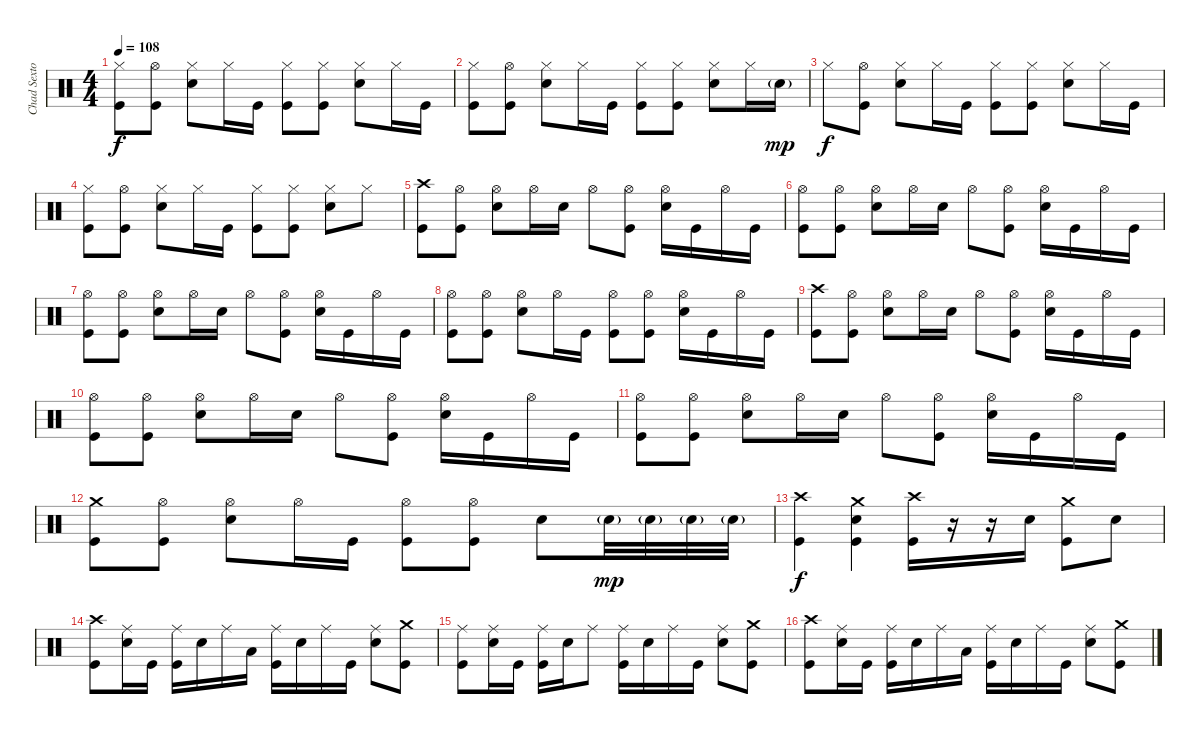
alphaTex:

\track ("Chad Sexton Drums" "Chad Sexto") {instrument percussion}
\staff {score}
\articulation defaults
\ts (4 4)
\tempo 108
\clef neutral
\ks c
("Hi-Hat (closed)" "Kick (hit)").8{dy f} ("Hi-Hat (open)" "Kick (hit)").8 ("Hi-Hat (closed)" "Electric Snare (hit)").8 "Hi-Hat (closed)".16 "Kick (hit)".16 ("Hi-Hat (closed)" "Kick (hit)").8 ("Hi-Hat (closed)" "Kick (hit)").8 ("Hi-Hat (closed)" "Electric Snare (hit)").8 "Hi-Hat (closed)".16 "Kick (hit)".16 |
("Hi-Hat (closed)" "Kick (hit)").8 ("Hi-Hat (open)" "Kick (hit)").8 ("Hi-Hat (closed)" "Electric Snare (hit)").8 "Hi-Hat (closed)".16 "Kick (hit)".16 ("Hi-Hat (closed)" "Kick (hit)").8 ("Hi-Hat (closed)" "Kick (hit)").8 ("Hi-Hat (closed)" "Electric Snare (hit)").8 "Hi-Hat (closed)".16 "Electric Snare (hit)"{g}.16{dy mp} |
"Hi-Hat (closed)".8{dy f} ("Hi-Hat (open)" "Kick (hit)").8 ("Hi-Hat (closed)" "Electric Snare (hit)").8 "Hi-Hat (closed)".16 "Kick (hit)".16 ("Hi-Hat (closed)" "Kick (hit)").8 ("Hi-Hat (closed)" "Kick (hit)").8 ("Hi-Hat (closed)" "Electric Snare (hit)").8 "Hi-Hat (closed)".16 "Kick (hit)".16 |
("Hi-Hat (closed)" "Kick (hit)").8 ("Hi-Hat (open)" "Kick (hit)").8 ("Hi-Hat (closed)" "Electric Snare (hit)").8 "Hi-Hat (closed)".16 "Kick (hit)".16 ("Hi-Hat (closed)" "Kick (hit)").8 ("Hi-Hat (closed)" "Kick (hit)").8 ("Hi-Hat (closed)" "Electric Snare (hit)").8 "Hi-Hat (closed)".8 |
("Crash high (hit)" "Kick (hit)").8 ("Hi-Hat (open)" "Kick (hit)").8 ("Hi-Hat (open)" "Electric Snare (hit)").8 "Hi-Hat (open)".16 "Electric Snare (hit)".16 "Hi-Hat (open)".8 ("Hi-Hat (open)" "Kick (hit)").8 ("Hi-Hat (open)" "Electric Snare (hit)").16 "Kick (hit)".16 "Hi-Hat (open)".16 "Kick (hit)".16 |
("Hi-Hat (open)" "Kick (hit)").8 ("Hi-Hat (open)" "Kick (hit)").8 ("Hi-Hat (open)" "Electric Snare (hit)").8 "Hi-Hat (open)".16 "Electric Snare (hit)".16 "Hi-Hat (open)".8 ("Hi-Hat (open)" "Kick (hit)").8 ("Hi-Hat (open)" "Electric Snare (hit)").16 "Kick (hit)".16 "Hi-Hat (open)".16 "Kick (hit)".16 |
("Hi-Hat (open)" "Kick (hit)").8 ("Hi-Hat (open)" "Kick (hit)").8 ("Hi-Hat (open)" "Electric Snare (hit)").8 "Hi-Hat (open)".16 "Electric Snare (hit)".16 "Hi-Hat (open)".8 ("Hi-Hat (open)" "Kick (hit)").8 ("Hi-Hat (open)" "Electric Snare (hit)").16 "Kick (hit)".16 "Hi-Hat (open)".16 "Kick (hit)".16 |
("Hi-Hat (open)" "Kick (hit)").8 ("Hi-Hat (open)" "Kick (hit)").8 ("Hi-Hat (open)" "Electric Snare (hit)").8 "Hi-Hat (open)".16 "Kick (hit)".16 ("Hi-Hat (open)" "Kick (hit)").8 ("Hi-Hat (open)" "Kick (hit)").8 ("Hi-Hat (open)" "Electric Snare (hit)").16 "Kick (hit)".16 "Hi-Hat (open)".16 "Kick (hit)".16 |
("Crash high (hit)" "Kick (hit)").8 ("Hi-Hat (open)" "Kick (hit)").8 ("Hi-Hat (open)" "Electric Snare (hit)").8 "Hi-Hat (open)".16 "Electric Snare (hit)".16 "Hi-Hat (open)".8 ("Hi-Hat (open)" "Kick (hit)").8 ("Hi-Hat (open)" "Electric Snare (hit)").16 "Kick (hit)".16 "Hi-Hat (open)".16 "Kick (hit)".16 |
("Hi-Hat (open)" "Kick (hit)").8 ("Hi-Hat (open)" "Kick (hit)").8 ("Hi-Hat (open)" "Electric Snare (hit)").8 "Hi-Hat (open)".16 "Electric Snare (hit)".16 "Hi-Hat (open)".8 ("Hi-Hat (open)" "Kick (hit)").8 ("Hi-Hat (open)" "Electric Snare (hit)").16 "Kick (hit)".16 "Hi-Hat (open)".16 "Kick (hit)".16 |
("Hi-Hat (open)" "Kick (hit)").8 ("Hi-Hat (open)" "Kick (hit)").8 ("Hi-Hat (open)" "Electric Snare (hit)").8 "Hi-Hat (open)".16 "Electric Snare (hit)".16 "Hi-Hat (open)".8 ("Hi-Hat (open)" "Kick (hit)").8 ("Hi-Hat (open)" "Electric Snare (hit)").16 "Kick (hit)".16 "Hi-Hat (open)".16 "Kick (hit)".16 |
("Crash medium (hit)" "Kick (hit)").8 ("Hi-Hat (open)" "Kick (hit)").8 ("Hi-Hat (open)" "Electric Snare (hit)").8 "Hi-Hat (open)".16 "Kick (hit)".16 ("Hi-Hat (open)" "Kick (hit)").8 ("Hi-Hat (open)" "Kick (hit)").8 "Electric Snare (hit)".8 "Electric Snare (hit)"{g}.32{dy mp} "Electric Snare (hit)"{g}.32 "Electric Snare (hit)"{g}.32 "Electric Snare (hit)"{g}.32 |
("Crash high (hit)" "Kick (hit)").4{dy f} ("Crash medium (hit)" "Electric Snare (hit)" "Kick (hit)").4 ("Crash high (hit)" "Kick (hit)").16 r.16 r.16 "Electric Snare (hit)".16 ("Crash medium (hit)" "Kick (hit)").8 "Electric Snare (hit)".8 |
("Crash high (hit)" "Kick (hit)").8 ("Ride (middle)" "Electric Snare (hit)").16 "Kick (hit)".16 ("Ride (middle)" "Kick (hit)").16 "Electric Snare (hit)".16 "Ride (middle)".16 "Low Tom (hit)".16 ("Ride (middle)" "Kick (hit)").16 "Electric Snare (hit)".16 "Ride (middle)".16 "Kick (hit)".16 ("Ride (middle)" "Electric Snare (hit)").8 ("Crash medium (hit)" "Kick (hit)").8 |
("Ride (middle)" "Kick (hit)").8 ("Ride (middle)" "Electric Snare (hit)").16 "Kick (hit)".16 ("Ride (middle)" "Kick (hit)").16 "Electric Snare (hit)".16 "Ride (middle)".8 ("Ride (middle)" "Kick (hit)").16 "Electric Snare (hit)".16 "Ride (middle)".16 "Kick (hit)".16 ("Ride (middle)" "Electric Snare (hit)").8 ("Crash medium (hit)" "Kick (hit)").8 |
("Crash high (hit)" "Kick (hit)").8 ("Ride (middle)" "Electric Snare (hit)").16 "Kick (hit)".16 ("Ride (middle)" "Kick (hit)").16 "Electric Snare (hit)".16 "Ride (middle)".16 "Low Tom (hit)".16 ("Ride (middle)" "Kick (hit)").16 "Electric Snare (hit)".16 "Ride (middle)".16 "Kick (hit)".16 ("Ride (middle)" "Electric Snare (hit)").8 ("Crash medium (hit)" "Kick (hit)").8
